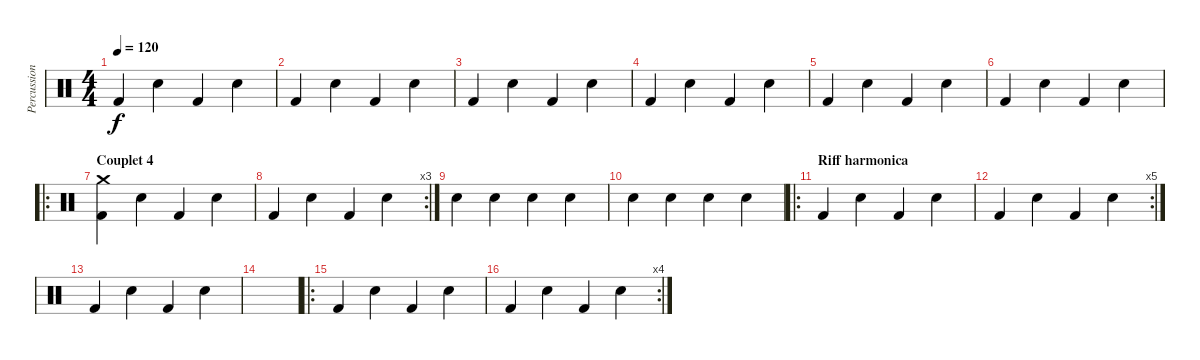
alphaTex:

\track ("Percussions" "Percussion") {instrument percussion}
\staff {score}
\articulation defaults
\ts (4 4)
\tempo 120
\clef neutral
\ks c "Kick (hit) 2".4{dy f} "Electric Snare (hit)".4 "Kick (hit) 2".4 "Electric Snare (hit)".4
|
"Kick (hit) 2".4 "Electric Snare (hit)".4 "Kick (hit) 2".4 "Electric Snare (hit)".4 |
"Kick (hit) 2".4 "Electric Snare (hit)".4 "Kick (hit) 2".4 "Electric Snare (hit)".4 |
"Kick (hit) 2".4 "Electric Snare (hit)".4 "Kick (hit) 2".4 "Electric Snare (hit)".4 |
"Kick (hit) 2".4 "Electric Snare (hit)".4 "Kick (hit) 2".4 "Electric Snare (hit)".4 |
"Kick (hit) 2".4 "Electric Snare (hit)".4 "Kick (hit) 2".4 "Electric Snare (hit)".4 |
\ro
\section ("" "Couplet 4")
("Crash medium (hit)" "Kick (hit) 2").4 "Electric Snare (hit)".4 "Kick (hit) 2".4 "Electric Snare (hit)".4 |
\rc 3 "Kick (hit) 2".4 "Electric Snare (hit)".4 "Kick (hit) 2".4 "Electric Snare (hit)".4
|
"Electric Snare (hit)".4 "Electric Snare (hit)".4 "Electric Snare (hit)".4 "Electric Snare (hit)".4 |
"Electric Snare (hit)".4 "Electric Snare (hit)".4 "Electric Snare (hit)".4 "Electric Snare (hit)".4 |
\ro
\section ("" "Riff harmonica")
"Kick (hit) 2".4 "Electric Snare (hit)".4 "Kick (hit) 2".4 "Electric Snare (hit)".4 |
\rc 5 "Kick (hit) 2".4 "Electric Snare (hit)".4 "Kick (hit) 2".4 "Electric Snare (hit)".4
|
"Kick (hit) 2".4 "Electric Snare (hit)".4 "Kick (hit) 2".4 "Electric Snare (hit)".4 |
|
\ro "Kick (hit) 2".4 "Electric Snare (hit)".4 "Kick (hit) 2".4 "Electric Snare (hit)".4
|
\rc 4 "Kick (hit) 2".4 "Electric Snare (hit)".4 "Kick (hit) 2".4 "Electric Snare (hit)".4
